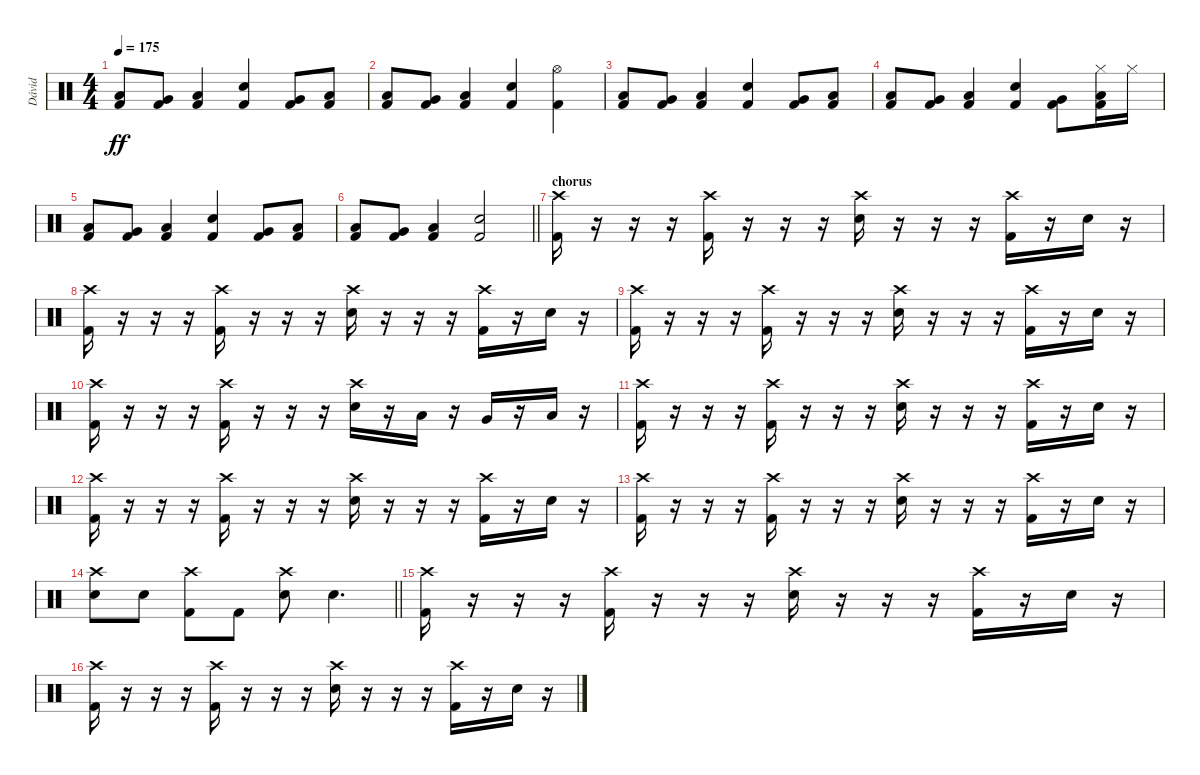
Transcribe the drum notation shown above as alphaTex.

\track ("Dávid" "Dávid") {instrument percussion}
\staff {score}
\articulation defaults
\ts (4 4)
\tempo 175
\clef neutral
\ks c
("Low Tom (hit)" "Kick (hit) 2").8{dy ff} ("Very Low Tom (hit)" "Kick (hit) 2").8 ("Low Floor Tom (hit)" "Kick (hit) 2").4 ("Electric Snare (hit)" "Kick (hit) 2").4 ("Very Low Tom (hit)" "Kick (hit) 2").8 ("Low Floor Tom (hit)" "Kick (hit) 2").8 |
("Low Tom (hit)" "Kick (hit) 2").8 ("Very Low Tom (hit)" "Kick (hit) 2").8 ("Low Floor Tom (hit)" "Kick (hit) 2").4 ("Electric Snare (hit)" "Kick (hit) 2").4 ("Hi-Hat (open)" "Kick (hit) 2").4 |
("Low Tom (hit)" "Kick (hit) 2").8 ("Very Low Tom (hit)" "Kick (hit) 2").8 ("Low Floor Tom (hit)" "Kick (hit) 2").4 ("Electric Snare (hit)" "Kick (hit) 2").4 ("Very Low Tom (hit)" "Kick (hit) 2").8 ("Low Floor Tom (hit)" "Kick (hit) 2").8 |
("Low Tom (hit)" "Kick (hit) 2").8 ("Very Low Tom (hit)" "Kick (hit) 2").8 ("Low Floor Tom (hit)" "Kick (hit) 2").4 ("Electric Snare (hit)" "Kick (hit) 2").4 ("Very Low Tom (hit)" "Kick (hit) 2").8 ("Low Floor Tom (hit)" "Hi-Hat (closed)" "Kick (hit) 2").16 "Hi-Hat (closed)".16 |
("Low Tom (hit)" "Kick (hit) 2").8 ("Very Low Tom (hit)" "Kick (hit) 2").8 ("Low Floor Tom (hit)" "Kick (hit) 2").4 ("Electric Snare (hit)" "Kick (hit) 2").4 ("Very Low Tom (hit)" "Kick (hit) 2").8 ("Low Floor Tom (hit)" "Kick (hit) 2").8 |
\barLineRight lightlight
("Low Tom (hit)" "Kick (hit) 2").8 ("Very Low Tom (hit)" "Kick (hit) 2").8 ("Low Floor Tom (hit)" "Kick (hit) 2").4 ("Electric Snare (hit)" "Kick (hit) 2").2 |
\section ("" "chorus")
("Crash high (hit)" "Kick (hit) 2").16 r.16 r.16 r.16 ("Crash high (hit)" "Kick (hit) 2").16 r.16 r.16 r.16 ("Crash high (hit)" "Electric Snare (hit)").16 r.16 r.16 r.16 ("Crash high (hit)" "Kick (hit) 2").16 r.16 "Electric Snare (hit)".16 r.16 |
("Crash high (hit)" "Kick (hit) 2").16 r.16 r.16 r.16 ("Crash high (hit)" "Kick (hit) 2").16 r.16 r.16 r.16 ("Crash high (hit)" "Electric Snare (hit)").16 r.16 r.16 r.16 ("Crash high (hit)" "Kick (hit) 2").16 r.16 "Electric Snare (hit)".16 r.16 |
("Crash high (hit)" "Kick (hit) 2").16 r.16 r.16 r.16 ("Crash high (hit)" "Kick (hit) 2").16 r.16 r.16 r.16 ("Crash high (hit)" "Electric Snare (hit)").16 r.16 r.16 r.16 ("Crash high (hit)" "Kick (hit) 2").16 r.16 "Electric Snare (hit)".16 r.16 |
("Crash high (hit)" "Kick (hit) 2").16 r.16 r.16 r.16 ("Crash high (hit)" "Kick (hit) 2").16 r.16 r.16 r.16 ("Crash high (hit)" "Electric Snare (hit)").16 r.16 "Low Tom (hit)".16 r.16 "Very Low Tom (hit)".16 r.16 "Low Floor Tom (hit)".16 r.16 |
("Crash high (hit)" "Kick (hit) 2").16 r.16 r.16 r.16 ("Crash high (hit)" "Kick (hit) 2").16 r.16 r.16 r.16 ("Crash high (hit)" "Electric Snare (hit)").16 r.16 r.16 r.16 ("Crash high (hit)" "Kick (hit) 2").16 r.16 "Electric Snare (hit)".16 r.16 |
("Crash high (hit)" "Kick (hit) 2").16 r.16 r.16 r.16 ("Crash high (hit)" "Kick (hit) 2").16 r.16 r.16 r.16 ("Crash high (hit)" "Electric Snare (hit)").16 r.16 r.16 r.16 ("Crash high (hit)" "Kick (hit) 2").16 r.16 "Electric Snare (hit)".16 r.16 |
("Crash high (hit)" "Kick (hit) 2").16 r.16 r.16 r.16 ("Crash high (hit)" "Kick (hit) 2").16 r.16 r.16 r.16 ("Crash high (hit)" "Electric Snare (hit)").16 r.16 r.16 r.16 ("Crash high (hit)" "Kick (hit) 2").16 r.16 "Electric Snare (hit)".16 r.16 |
\barLineRight lightlight
("Crash high (hit)" "Electric Snare (hit)").8 "Electric Snare (hit)".8 ("Crash high (hit)" "Kick (hit) 2").8 "Kick (hit) 2".8 ("Crash high (hit)" "Electric Snare (hit)").8 "Electric Snare (hit)".4{d} |
("Crash high (hit)" "Kick (hit) 2").16 r.16 r.16 r.16 ("Crash high (hit)" "Kick (hit) 2").16 r.16 r.16 r.16 ("Crash high (hit)" "Electric Snare (hit)").16 r.16 r.16 r.16 ("Crash high (hit)" "Kick (hit) 2").16 r.16 "Electric Snare (hit)".16 r.16 |
("Crash high (hit)" "Kick (hit) 2").16 r.16 r.16 r.16 ("Crash high (hit)" "Kick (hit) 2").16 r.16 r.16 r.16 ("Crash high (hit)" "Electric Snare (hit)").16 r.16 r.16 r.16 ("Crash high (hit)" "Kick (hit) 2").16 r.16 "Electric Snare (hit)".16 r.16
